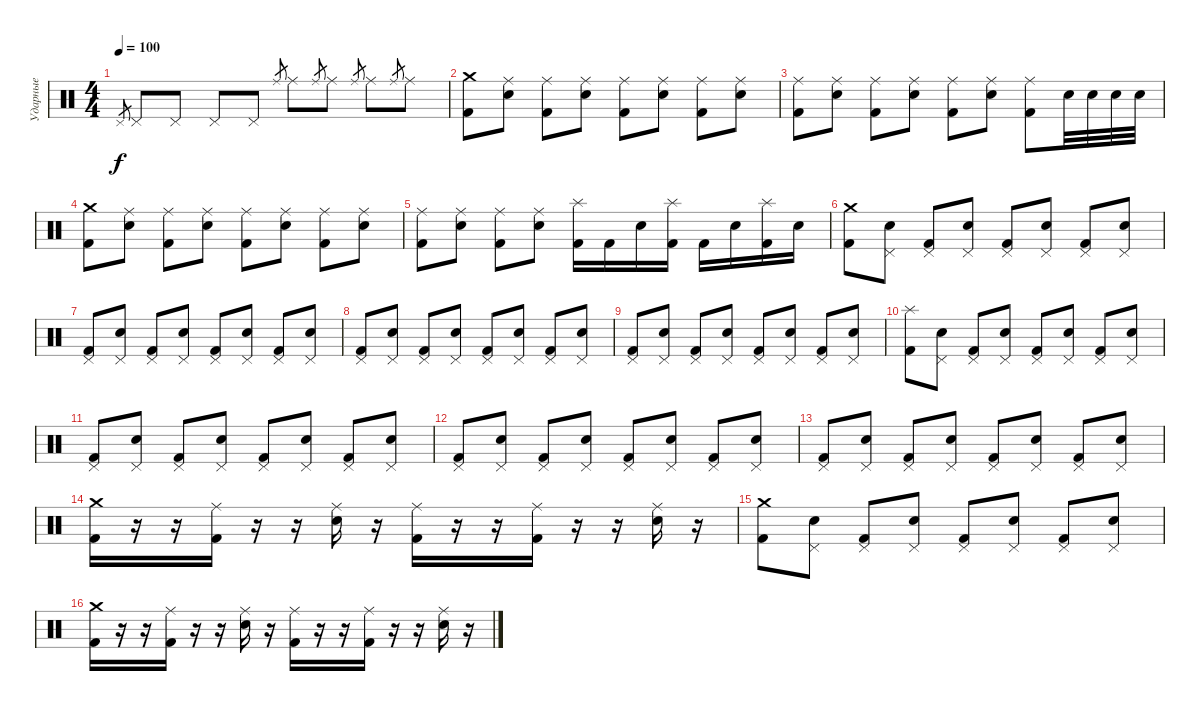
\track ("Ударные" "Ударные") {instrument percussion}
\staff {score}
\articulation defaults
\ts (4 4)
\tempo 100
\clef neutral
\ks c "Pedal Hi-Hat (hit)".8{gr dy f} "Pedal Hi-Hat (hit)".8 "Pedal Hi-Hat (hit)".8 "Pedal Hi-Hat (hit)".8 "Pedal Hi-Hat (hit)".8 "Ride (middle)".8{gr} "Ride (middle)".8 "Ride (middle)".8{gr} "Ride (middle)".8 "Ride (middle)".8{gr} "Ride (middle)".8 "Ride (middle)".8{gr} "Ride (middle)".8
|
("Crash medium (hit)" "Kick (hit) 2").8 ("Ride (middle)" "Electric Snare (hit)").8 ("Ride (middle)" "Kick (hit) 2").8 ("Ride (middle)" "Electric Snare (hit)").8 ("Ride (middle)" "Kick (hit) 2").8 ("Ride (middle)" "Electric Snare (hit)").8 ("Ride (middle)" "Kick (hit) 2").8 ("Ride (middle)" "Electric Snare (hit)").8 |
("Ride (middle)" "Kick (hit) 2").8 ("Ride (middle)" "Electric Snare (hit)").8 ("Ride (middle)" "Kick (hit) 2").8 ("Ride (middle)" "Electric Snare (hit)").8 ("Ride (middle)" "Kick (hit) 2").8 ("Ride (middle)" "Electric Snare (hit)").8 ("Ride (middle)" "Kick (hit) 2").8 "Electric Snare (hit)".32 "Electric Snare (hit)".32 "Electric Snare (hit)".32 "Electric Snare (hit)".32 |
("Crash medium (hit)" "Kick (hit) 2").8 ("Ride (middle)" "Electric Snare (hit)").8 ("Ride (middle)" "Kick (hit) 2").8 ("Ride (middle)" "Electric Snare (hit)").8 ("Ride (middle)" "Kick (hit) 2").8 ("Ride (middle)" "Electric Snare (hit)").8 ("Ride (middle)" "Kick (hit) 2").8 ("Ride (middle)" "Electric Snare (hit)").8 |
("Ride (middle)" "Kick (hit) 2").8 ("Ride (middle)" "Electric Snare (hit)").8 ("Ride (middle)" "Kick (hit) 2").8 ("Ride (middle)" "Electric Snare (hit)").8 ("Splash (hit)" "Kick (hit) 2").16 "Kick (hit) 2".16 "Electric Snare (hit)".16 ("Splash (hit)" "Kick (hit) 2").16 "Kick (hit) 2".16 "Electric Snare (hit)".16 ("Splash (hit)" "Kick (hit) 2").16 "Electric Snare (hit)".16 |
("Crash medium (hit)" "Kick (hit) 2").8 ("Pedal Hi-Hat (hit)" "Electric Snare (hit)").8 ("Pedal Hi-Hat (hit)" "Kick (hit) 2").8 ("Pedal Hi-Hat (hit)" "Electric Snare (hit)").8 ("Pedal Hi-Hat (hit)" "Kick (hit) 2").8 ("Pedal Hi-Hat (hit)" "Electric Snare (hit)").8 ("Pedal Hi-Hat (hit)" "Kick (hit) 2").8 ("Pedal Hi-Hat (hit)" "Electric Snare (hit)").8 |
("Pedal Hi-Hat (hit)" "Kick (hit) 2").8 ("Pedal Hi-Hat (hit)" "Electric Snare (hit)").8 ("Pedal Hi-Hat (hit)" "Kick (hit) 2").8 ("Pedal Hi-Hat (hit)" "Electric Snare (hit)").8 ("Pedal Hi-Hat (hit)" "Kick (hit) 2").8 ("Pedal Hi-Hat (hit)" "Electric Snare (hit)").8 ("Pedal Hi-Hat (hit)" "Kick (hit) 2").8 ("Pedal Hi-Hat (hit)" "Electric Snare (hit)").8 |
("Pedal Hi-Hat (hit)" "Kick (hit) 2").8 ("Pedal Hi-Hat (hit)" "Electric Snare (hit)").8 ("Pedal Hi-Hat (hit)" "Kick (hit) 2").8 ("Pedal Hi-Hat (hit)" "Electric Snare (hit)").8 ("Pedal Hi-Hat (hit)" "Kick (hit) 2").8 ("Pedal Hi-Hat (hit)" "Electric Snare (hit)").8 ("Pedal Hi-Hat (hit)" "Kick (hit) 2").8 ("Pedal Hi-Hat (hit)" "Electric Snare (hit)").8 |
("Pedal Hi-Hat (hit)" "Kick (hit) 2").8 ("Pedal Hi-Hat (hit)" "Electric Snare (hit)").8 ("Pedal Hi-Hat (hit)" "Kick (hit) 2").8 ("Pedal Hi-Hat (hit)" "Electric Snare (hit)").8 ("Pedal Hi-Hat (hit)" "Kick (hit) 2").8 ("Pedal Hi-Hat (hit)" "Electric Snare (hit)").8 ("Pedal Hi-Hat (hit)" "Kick (hit) 2").8 ("Pedal Hi-Hat (hit)" "Electric Snare (hit)").8 |
("Splash (hit)" "Kick (hit) 2").8 ("Pedal Hi-Hat (hit)" "Electric Snare (hit)").8 ("Pedal Hi-Hat (hit)" "Kick (hit) 2").8 ("Pedal Hi-Hat (hit)" "Electric Snare (hit)").8 ("Pedal Hi-Hat (hit)" "Kick (hit) 2").8 ("Pedal Hi-Hat (hit)" "Electric Snare (hit)").8 ("Pedal Hi-Hat (hit)" "Kick (hit) 2").8 ("Pedal Hi-Hat (hit)" "Electric Snare (hit)").8 |
("Pedal Hi-Hat (hit)" "Kick (hit) 2").8 ("Pedal Hi-Hat (hit)" "Electric Snare (hit)").8 ("Pedal Hi-Hat (hit)" "Kick (hit) 2").8 ("Pedal Hi-Hat (hit)" "Electric Snare (hit)").8 ("Pedal Hi-Hat (hit)" "Kick (hit) 2").8 ("Pedal Hi-Hat (hit)" "Electric Snare (hit)").8 ("Pedal Hi-Hat (hit)" "Kick (hit) 2").8 ("Pedal Hi-Hat (hit)" "Electric Snare (hit)").8 |
("Pedal Hi-Hat (hit)" "Kick (hit) 2").8 ("Pedal Hi-Hat (hit)" "Electric Snare (hit)").8 ("Pedal Hi-Hat (hit)" "Kick (hit) 2").8 ("Pedal Hi-Hat (hit)" "Electric Snare (hit)").8 ("Pedal Hi-Hat (hit)" "Kick (hit) 2").8 ("Pedal Hi-Hat (hit)" "Electric Snare (hit)").8 ("Pedal Hi-Hat (hit)" "Kick (hit) 2").8 ("Pedal Hi-Hat (hit)" "Electric Snare (hit)").8 |
("Pedal Hi-Hat (hit)" "Kick (hit) 2").8 ("Pedal Hi-Hat (hit)" "Electric Snare (hit)").8 ("Pedal Hi-Hat (hit)" "Kick (hit) 2").8 ("Pedal Hi-Hat (hit)" "Electric Snare (hit)").8 ("Pedal Hi-Hat (hit)" "Kick (hit) 2").8 ("Pedal Hi-Hat (hit)" "Electric Snare (hit)").8 ("Pedal Hi-Hat (hit)" "Kick (hit) 2").8 ("Pedal Hi-Hat (hit)" "Electric Snare (hit)").8 |
("Crash medium (hit)" "Kick (hit) 2").16 r.16 r.16 ("Ride (middle)" "Kick (hit) 2").16 r.16 r.16 ("Ride (middle)" "Electric Snare (hit)").16 r.16 ("Ride (middle)" "Kick (hit) 2").16 r.16 r.16 ("Ride (middle)" "Kick (hit) 2").16 r.16 r.16 ("Ride (middle)" "Electric Snare (hit)").16 r.16 |
("Crash medium (hit)" "Kick (hit) 2").8 ("Pedal Hi-Hat (hit)" "Electric Snare (hit)").8 ("Pedal Hi-Hat (hit)" "Kick (hit) 2").8 ("Pedal Hi-Hat (hit)" "Electric Snare (hit)").8 ("Pedal Hi-Hat (hit)" "Kick (hit) 2").8 ("Pedal Hi-Hat (hit)" "Electric Snare (hit)").8 ("Pedal Hi-Hat (hit)" "Kick (hit) 2").8 ("Pedal Hi-Hat (hit)" "Electric Snare (hit)").8 |
("Crash medium (hit)" "Kick (hit) 2").16 r.16 r.16 ("Ride (middle)" "Kick (hit) 2").16 r.16 r.16 ("Ride (middle)" "Electric Snare (hit)").16 r.16 ("Ride (middle)" "Kick (hit) 2").16 r.16 r.16 ("Ride (middle)" "Kick (hit) 2").16 r.16 r.16 ("Ride (middle)" "Electric Snare (hit)").16 r.16
